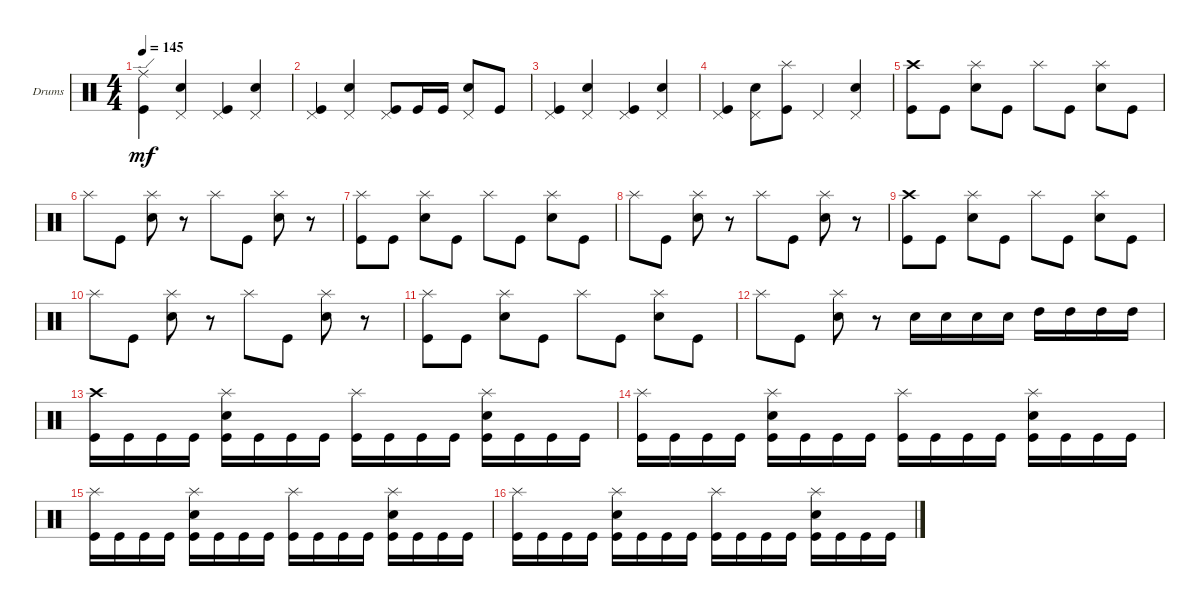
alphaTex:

\bracketExtendMode groupsimilarinstruments
\firstSystemTrackNameOrientation horizontal
\otherSystemsTrackNameOrientation horizontal
\track ("Drumkit" "Drums") {instrument percussion}
\staff {score}
\articulation defaults
\ts (4 4)
\tempo 145
\clef neutral
\ks c
("Kick (hit)" "Ride (edge)").4{dy mf} ("Pedal Hi-Hat (hit)" "Snare (hit) 2").4 ("Kick (hit)" "Pedal Hi-Hat (hit)").4 ("Snare (hit) 2" "Pedal Hi-Hat (hit)").4 |
("Kick (hit)" "Pedal Hi-Hat (hit)").4 ("Pedal Hi-Hat (hit)" "Snare (hit) 2").4 ("Kick (hit)" "Pedal Hi-Hat (hit)").8 "Kick (hit)".16 "Kick (hit)".16 ("Snare (hit) 2" "Pedal Hi-Hat (hit)").8 "Kick (hit)".8 |
("Kick (hit)" "Pedal Hi-Hat (hit)").4 ("Pedal Hi-Hat (hit)" "Snare (hit) 2").4 ("Kick (hit)" "Pedal Hi-Hat (hit)").4 ("Snare (hit) 2" "Pedal Hi-Hat (hit)").4 |
("Kick (hit)" "Pedal Hi-Hat (hit)").4 ("Pedal Hi-Hat (hit)" "Snare (hit) 2").8 ("Kick (hit)" "Splash (hit)").8 "Pedal Hi-Hat (hit)".4 ("Snare (hit) 2" "Pedal Hi-Hat (hit)").4 |
("Kick (hit)" "Crash high (hit)").8 "Kick (hit)".8 ("Splash (hit)" "Snare (hit) 2").8 "Kick (hit)".8 "Splash (hit)".8 "Kick (hit)".8 ("Splash (hit)" "Snare (hit) 2").8 "Kick (hit)".8 |
"Splash (hit)".8 "Kick (hit)".8 ("Splash (hit)" "Snare (hit) 2").8 r.8 "Splash (hit)".8 "Kick (hit)".8 ("Splash (hit)" "Snare (hit) 2").8 r.8 |
("Kick (hit)" "Splash (hit)").8 "Kick (hit)".8 ("Splash (hit)" "Snare (hit) 2").8 "Kick (hit)".8 "Splash (hit)".8 "Kick (hit)".8 ("Splash (hit)" "Snare (hit) 2").8 "Kick (hit)".8 |
"Splash (hit)".8 "Kick (hit)".8 ("Splash (hit)" "Snare (hit) 2").8 r.8 "Splash (hit)".8 "Kick (hit)".8 ("Splash (hit)" "Snare (hit) 2").8 r.8 |
("Kick (hit)" "Crash high (hit)").8 "Kick (hit)".8 ("Splash (hit)" "Snare (hit) 2").8 "Kick (hit)".8 "Splash (hit)".8 "Kick (hit)".8 ("Splash (hit)" "Snare (hit) 2").8 "Kick (hit)".8 |
"Splash (hit)".8 "Kick (hit)".8 ("Splash (hit)" "Snare (hit) 2").8 r.8 "Splash (hit)".8 "Kick (hit)".8 ("Splash (hit)" "Snare (hit) 2").8 r.8 |
("Kick (hit)" "Splash (hit)").8 "Kick (hit)".8 ("Splash (hit)" "Snare (hit) 2").8 "Kick (hit)".8 "Splash (hit)".8 "Kick (hit)".8 ("Splash (hit)" "Snare (hit) 2").8 "Kick (hit)".8 |
"Splash (hit)".8 "Kick (hit)".8 ("Splash (hit)" "Snare (hit) 2").8 r.8 "Snare (hit) 2".16 "Snare (hit) 2".16 "Snare (hit) 2".16 "Snare (hit) 2".16 "High Tom (hit)".16 "High Tom (hit)".16 "High Tom (hit)".16 "High Tom (hit)".16 |
("Kick (hit)" "Crash high (hit)").16 "Kick (hit)".16 "Kick (hit)".16 "Kick (hit)".16 ("Kick (hit)" "Snare (hit) 2" "Splash (hit)").16 "Kick (hit)".16 "Kick (hit)".16 "Kick (hit)".16 ("Kick (hit)" "Splash (hit)").16 "Kick (hit)".16 "Kick (hit)".16 "Kick (hit)".16 ("Kick (hit)" "Snare (hit) 2" "Splash (hit)").16 "Kick (hit)".16 "Kick (hit)".16 "Kick (hit)".16 |
("Kick (hit)" "Splash (hit)").16 "Kick (hit)".16 "Kick (hit)".16 "Kick (hit)".16 ("Kick (hit)" "Snare (hit) 2" "Splash (hit)").16 "Kick (hit)".16 "Kick (hit)".16 "Kick (hit)".16 ("Kick (hit)" "Splash (hit)").16 "Kick (hit)".16 "Kick (hit)".16 "Kick (hit)".16 ("Kick (hit)" "Snare (hit) 2" "Splash (hit)").16 "Kick (hit)".16 "Kick (hit)".16 "Kick (hit)".16 |
("Kick (hit)" "Splash (hit)").16 "Kick (hit)".16 "Kick (hit)".16 "Kick (hit)".16 ("Kick (hit)" "Snare (hit) 2" "Splash (hit)").16 "Kick (hit)".16 "Kick (hit)".16 "Kick (hit)".16 ("Kick (hit)" "Splash (hit)").16 "Kick (hit)".16 "Kick (hit)".16 "Kick (hit)".16 ("Kick (hit)" "Snare (hit) 2" "Splash (hit)").16 "Kick (hit)".16 "Kick (hit)".16 "Kick (hit)".16 |
("Kick (hit)" "Splash (hit)").16 "Kick (hit)".16 "Kick (hit)".16 "Kick (hit)".16 ("Kick (hit)" "Snare (hit) 2" "Splash (hit)").16 "Kick (hit)".16 "Kick (hit)".16 "Kick (hit)".16 ("Kick (hit)" "Splash (hit)").16 "Kick (hit)".16 "Kick (hit)".16 "Kick (hit)".16 ("Kick (hit)" "Snare (hit) 2" "Splash (hit)").16 "Kick (hit)".16 "Kick (hit)".16 "Kick (hit)".16
